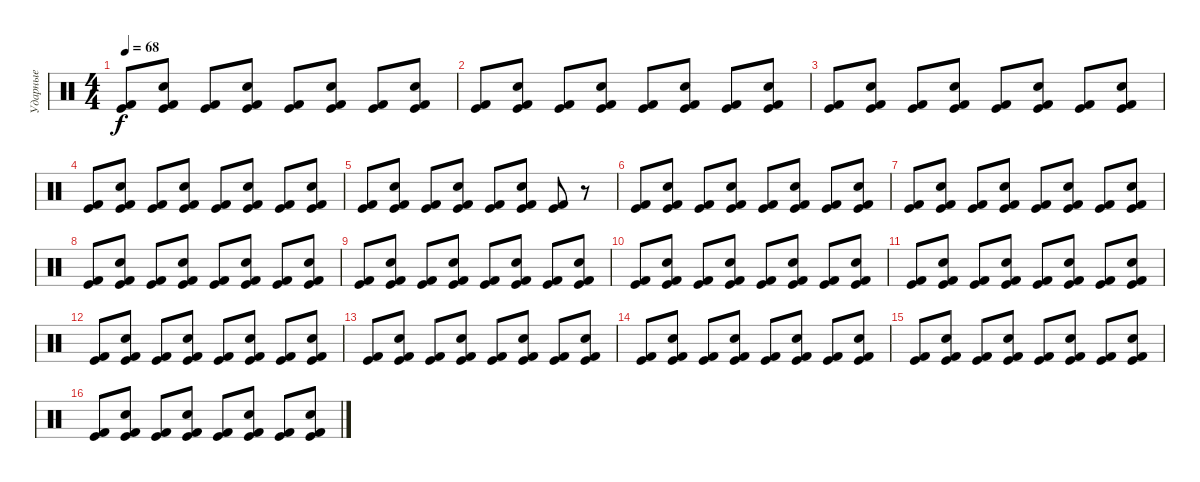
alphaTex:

\track ("Ударные" "Ударные") {instrument percussion}
\staff {score}
\articulation defaults
\ts (4 4)
\tempo 68
\clef neutral
\ks c
("Kick (hit)" "Kick (hit) 2").8{dy f} ("Kick (hit)" "Kick (hit) 2" "Hand Clap (hit)").8 ("Kick (hit)" "Kick (hit) 2").8 ("Kick (hit)" "Kick (hit) 2" "Hand Clap (hit)").8 ("Kick (hit)" "Kick (hit) 2").8 ("Kick (hit)" "Kick (hit) 2" "Hand Clap (hit)").8 ("Kick (hit)" "Kick (hit) 2").8 ("Kick (hit)" "Kick (hit) 2" "Hand Clap (hit)").8 |
("Kick (hit)" "Kick (hit) 2").8 ("Kick (hit)" "Kick (hit) 2" "Hand Clap (hit)").8 ("Kick (hit)" "Kick (hit) 2").8 ("Kick (hit)" "Kick (hit) 2" "Hand Clap (hit)").8 ("Kick (hit)" "Kick (hit) 2").8 ("Kick (hit)" "Kick (hit) 2" "Hand Clap (hit)").8 ("Kick (hit)" "Kick (hit) 2").8 ("Kick (hit)" "Kick (hit) 2" "Hand Clap (hit)").8 |
("Kick (hit)" "Kick (hit) 2").8 ("Kick (hit)" "Kick (hit) 2" "Hand Clap (hit)").8 ("Kick (hit)" "Kick (hit) 2").8 ("Kick (hit)" "Kick (hit) 2" "Hand Clap (hit)").8 ("Kick (hit)" "Kick (hit) 2").8 ("Kick (hit)" "Kick (hit) 2" "Hand Clap (hit)").8 ("Kick (hit)" "Kick (hit) 2").8 ("Kick (hit)" "Kick (hit) 2" "Hand Clap (hit)").8 |
("Kick (hit)" "Kick (hit) 2").8 ("Kick (hit)" "Kick (hit) 2" "Hand Clap (hit)").8 ("Kick (hit)" "Kick (hit) 2").8 ("Kick (hit)" "Kick (hit) 2" "Hand Clap (hit)").8 ("Kick (hit)" "Kick (hit) 2").8 ("Kick (hit)" "Kick (hit) 2" "Hand Clap (hit)").8 ("Kick (hit)" "Kick (hit) 2").8 ("Kick (hit)" "Kick (hit) 2" "Hand Clap (hit)").8 |
("Kick (hit)" "Kick (hit) 2").8 ("Kick (hit)" "Kick (hit) 2" "Hand Clap (hit)").8 ("Kick (hit)" "Kick (hit) 2").8 ("Kick (hit)" "Kick (hit) 2" "Hand Clap (hit)").8 ("Kick (hit)" "Kick (hit) 2").8 ("Kick (hit)" "Kick (hit) 2" "Hand Clap (hit)").8 ("Kick (hit)" "Kick (hit) 2").8 r.8 |
("Kick (hit)" "Kick (hit) 2").8 ("Kick (hit)" "Kick (hit) 2" "Hand Clap (hit)").8 ("Kick (hit)" "Kick (hit) 2").8 ("Kick (hit)" "Kick (hit) 2" "Hand Clap (hit)").8 ("Kick (hit)" "Kick (hit) 2").8 ("Kick (hit)" "Kick (hit) 2" "Hand Clap (hit)").8 ("Kick (hit)" "Kick (hit) 2").8 ("Kick (hit)" "Kick (hit) 2" "Hand Clap (hit)").8 |
("Kick (hit)" "Kick (hit) 2").8 ("Kick (hit)" "Kick (hit) 2" "Hand Clap (hit)").8 ("Kick (hit)" "Kick (hit) 2").8 ("Kick (hit)" "Kick (hit) 2" "Hand Clap (hit)").8 ("Kick (hit)" "Kick (hit) 2").8 ("Kick (hit)" "Kick (hit) 2" "Hand Clap (hit)").8 ("Kick (hit)" "Kick (hit) 2").8 ("Kick (hit)" "Kick (hit) 2" "Hand Clap (hit)").8 |
("Kick (hit)" "Kick (hit) 2").8 ("Kick (hit)" "Kick (hit) 2" "Hand Clap (hit)").8 ("Kick (hit)" "Kick (hit) 2").8 ("Kick (hit)" "Kick (hit) 2" "Hand Clap (hit)").8 ("Kick (hit)" "Kick (hit) 2").8 ("Kick (hit)" "Kick (hit) 2" "Hand Clap (hit)").8 ("Kick (hit)" "Kick (hit) 2").8 ("Kick (hit)" "Kick (hit) 2" "Hand Clap (hit)").8 |
("Kick (hit)" "Kick (hit) 2").8 ("Kick (hit)" "Kick (hit) 2" "Hand Clap (hit)").8 ("Kick (hit)" "Kick (hit) 2").8 ("Kick (hit)" "Kick (hit) 2" "Hand Clap (hit)").8 ("Kick (hit)" "Kick (hit) 2").8 ("Kick (hit)" "Kick (hit) 2" "Hand Clap (hit)").8 ("Kick (hit)" "Kick (hit) 2").8 ("Kick (hit)" "Kick (hit) 2" "Hand Clap (hit)").8 |
("Kick (hit)" "Kick (hit) 2").8 ("Kick (hit)" "Kick (hit) 2" "Hand Clap (hit)").8 ("Kick (hit)" "Kick (hit) 2").8 ("Kick (hit)" "Kick (hit) 2" "Hand Clap (hit)").8 ("Kick (hit)" "Kick (hit) 2").8 ("Kick (hit)" "Kick (hit) 2" "Hand Clap (hit)").8 ("Kick (hit)" "Kick (hit) 2").8 ("Kick (hit)" "Kick (hit) 2" "Hand Clap (hit)").8 |
("Kick (hit)" "Kick (hit) 2").8 ("Kick (hit)" "Kick (hit) 2" "Hand Clap (hit)").8 ("Kick (hit)" "Kick (hit) 2").8 ("Kick (hit)" "Kick (hit) 2" "Hand Clap (hit)").8 ("Kick (hit)" "Kick (hit) 2").8 ("Kick (hit)" "Kick (hit) 2" "Hand Clap (hit)").8 ("Kick (hit)" "Kick (hit) 2").8 ("Kick (hit)" "Kick (hit) 2" "Hand Clap (hit)").8 |
("Kick (hit)" "Kick (hit) 2").8 ("Kick (hit)" "Kick (hit) 2" "Hand Clap (hit)").8 ("Kick (hit)" "Kick (hit) 2").8 ("Kick (hit)" "Kick (hit) 2" "Hand Clap (hit)").8 ("Kick (hit)" "Kick (hit) 2").8 ("Kick (hit)" "Kick (hit) 2" "Hand Clap (hit)").8 ("Kick (hit)" "Kick (hit) 2").8 ("Kick (hit)" "Kick (hit) 2" "Hand Clap (hit)").8 |
("Kick (hit)" "Kick (hit) 2").8 ("Kick (hit)" "Kick (hit) 2" "Hand Clap (hit)").8 ("Kick (hit)" "Kick (hit) 2").8 ("Kick (hit)" "Kick (hit) 2" "Hand Clap (hit)").8 ("Kick (hit)" "Kick (hit) 2").8 ("Kick (hit)" "Kick (hit) 2" "Hand Clap (hit)").8 ("Kick (hit)" "Kick (hit) 2").8 ("Kick (hit)" "Kick (hit) 2" "Hand Clap (hit)").8 |
("Kick (hit)" "Kick (hit) 2").8 ("Kick (hit)" "Kick (hit) 2" "Hand Clap (hit)").8 ("Kick (hit)" "Kick (hit) 2").8 ("Kick (hit)" "Kick (hit) 2" "Hand Clap (hit)").8 ("Kick (hit)" "Kick (hit) 2").8 ("Kick (hit)" "Kick (hit) 2" "Hand Clap (hit)").8 ("Kick (hit)" "Kick (hit) 2").8 ("Kick (hit)" "Kick (hit) 2" "Hand Clap (hit)").8 |
("Kick (hit)" "Kick (hit) 2").8 ("Kick (hit)" "Kick (hit) 2" "Hand Clap (hit)").8 ("Kick (hit)" "Kick (hit) 2").8 ("Kick (hit)" "Kick (hit) 2" "Hand Clap (hit)").8 ("Kick (hit)" "Kick (hit) 2").8 ("Kick (hit)" "Kick (hit) 2" "Hand Clap (hit)").8 ("Kick (hit)" "Kick (hit) 2").8 ("Kick (hit)" "Kick (hit) 2" "Hand Clap (hit)").8 |
("Kick (hit)" "Kick (hit) 2").8 ("Kick (hit)" "Kick (hit) 2" "Hand Clap (hit)").8 ("Kick (hit)" "Kick (hit) 2").8 ("Kick (hit)" "Kick (hit) 2" "Hand Clap (hit)").8 ("Kick (hit)" "Kick (hit) 2").8 ("Kick (hit)" "Kick (hit) 2" "Hand Clap (hit)").8 ("Kick (hit)" "Kick (hit) 2").8 ("Kick (hit)" "Kick (hit) 2" "Hand Clap (hit)").8
